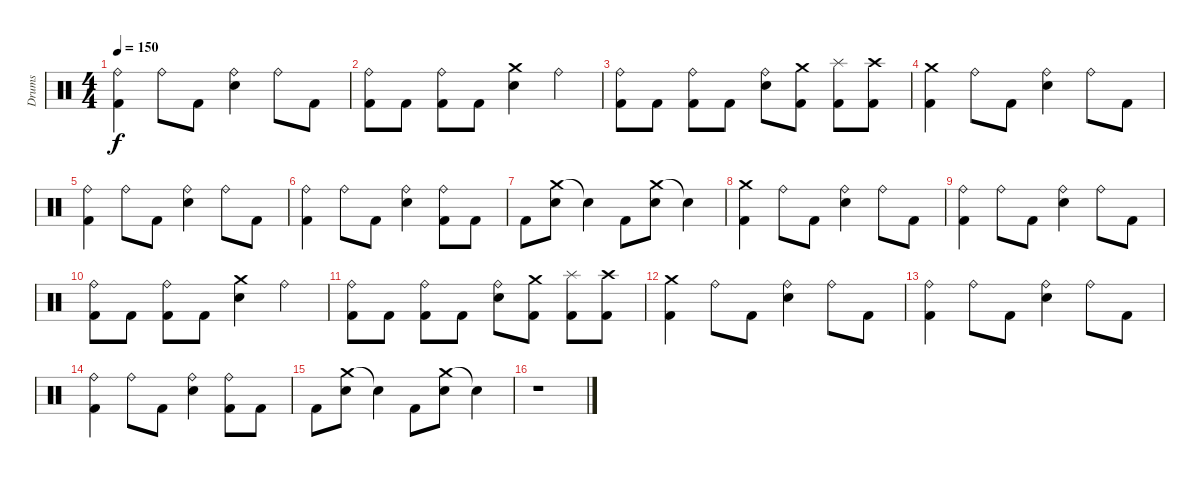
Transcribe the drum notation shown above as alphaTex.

\track ("Drums" "Drums") {instrument percussion}
\staff {score}
\articulation defaults
\ts (4 4)
\tempo 150
\clef neutral
\ks c
("Ride (bell)" "Kick (hit) 2").4{dy f} "Ride (bell)".8 "Kick (hit) 2".8 ("Ride (bell)" "Electric Snare (hit)").4 "Ride (bell)".8 "Kick (hit) 2".8 |
("Ride (bell)" "Kick (hit) 2").8 "Kick (hit) 2".8 ("Ride (bell)" "Kick (hit) 2").8 "Kick (hit) 2".8 ("Crash medium (hit)" "Electric Snare (hit)").4 "Ride (bell)".4 |
("Ride (bell)" "Kick (hit) 2").8 "Kick (hit) 2".8 ("Ride (bell)" "Kick (hit) 2").8 "Kick (hit) 2".8 ("Ride (bell)" "Electric Snare (hit)").8 ("Crash medium (hit)" "Kick (hit) 2").8 ("Splash (hit)" "Kick (hit) 2").8 ("Crash high (hit)" "Kick (hit) 2").8 |
("Crash medium (hit)" "Kick (hit) 2").4 "Ride (bell)".8 "Kick (hit) 2".8 ("Ride (bell)" "Electric Snare (hit)").4 "Ride (bell)".8 "Kick (hit) 2".8 |
("Ride (bell)" "Kick (hit) 2").4 "Ride (bell)".8 "Kick (hit) 2".8 ("Ride (bell)" "Electric Snare (hit)").4 "Ride (bell)".8 "Kick (hit) 2".8 |
("Ride (bell)" "Kick (hit) 2").4 "Ride (bell)".8 "Kick (hit) 2".8 ("Ride (bell)" "Electric Snare (hit)").4 ("Ride (bell)" "Kick (hit) 2").8 "Kick (hit) 2".8 |
"Kick (hit) 2".8 ("Crash medium (hit)" "Electric Snare (hit)").8 "Snare (hit)"{t}.4 "Kick (hit) 2".8 ("Crash medium (hit)" "Electric Snare (hit)").8 "Snare (hit)"{t}.4 |
("Crash medium (hit)" "Kick (hit) 2").4 "Ride (bell)".8 "Kick (hit) 2".8 ("Ride (bell)" "Electric Snare (hit)").4 "Ride (bell)".8 "Kick (hit) 2".8 |
("Ride (bell)" "Kick (hit) 2").4 "Ride (bell)".8 "Kick (hit) 2".8 ("Ride (bell)" "Electric Snare (hit)").4 "Ride (bell)".8 "Kick (hit) 2".8 |
("Ride (bell)" "Kick (hit) 2").8 "Kick (hit) 2".8 ("Ride (bell)" "Kick (hit) 2").8 "Kick (hit) 2".8 ("Crash medium (hit)" "Electric Snare (hit)").4 "Ride (bell)".4 |
("Ride (bell)" "Kick (hit) 2").8 "Kick (hit) 2".8 ("Ride (bell)" "Kick (hit) 2").8 "Kick (hit) 2".8 ("Ride (bell)" "Electric Snare (hit)").8 ("Crash medium (hit)" "Kick (hit) 2").8 ("Splash (hit)" "Kick (hit) 2").8 ("Crash high (hit)" "Kick (hit) 2").8 |
("Crash medium (hit)" "Kick (hit) 2").4 "Ride (bell)".8 "Kick (hit) 2".8 ("Ride (bell)" "Electric Snare (hit)").4 "Ride (bell)".8 "Kick (hit) 2".8 |
("Ride (bell)" "Kick (hit) 2").4 "Ride (bell)".8 "Kick (hit) 2".8 ("Ride (bell)" "Electric Snare (hit)").4 "Ride (bell)".8 "Kick (hit) 2".8 |
("Ride (bell)" "Kick (hit) 2").4 "Ride (bell)".8 "Kick (hit) 2".8 ("Ride (bell)" "Electric Snare (hit)").4 ("Ride (bell)" "Kick (hit) 2").8 "Kick (hit) 2".8 |
"Kick (hit) 2".8 ("Crash medium (hit)" "Electric Snare (hit)").8 "Snare (hit)"{t}.4 "Kick (hit) 2".8 ("Crash medium (hit)" "Electric Snare (hit)").8 "Snare (hit)"{t}.4 |
r.1
